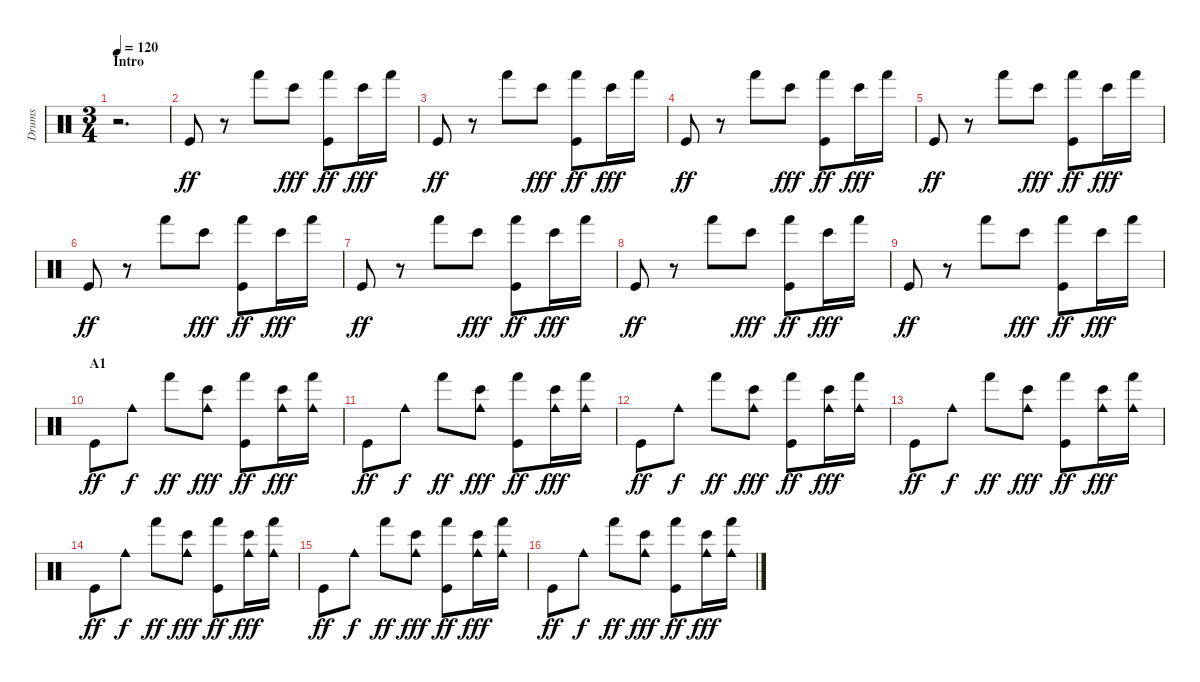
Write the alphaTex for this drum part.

\track ("Drums" "Drums") {instrument percussion}
\staff {score}
\articulation defaults
\ts (3 4)
\section ("" "Intro")
\tempo 120
\clef neutral
\ks c
r.2{d dy ff} |
"Kick (hit)".8 r.8 "Hand (hit)".8 "Bongo High (hit)".8{dy fff} ("Hand (hit)" "Kick (hit)").8{dy ff} "Bongo High (hit)".16{dy fff} "Hand (hit)".16 |
"Kick (hit)".8{dy ff} r.8 "Hand (hit)".8 "Bongo High (hit)".8{dy fff} ("Hand (hit)" "Kick (hit)").8{dy ff} "Bongo High (hit)".16{dy fff} "Hand (hit)".16 |
"Kick (hit)".8{dy ff} r.8 "Hand (hit)".8 "Bongo High (hit)".8{dy fff} ("Hand (hit)" "Kick (hit)").8{dy ff} "Bongo High (hit)".16{dy fff} "Hand (hit)".16 |
"Kick (hit)".8{dy ff} r.8 "Hand (hit)".8 "Bongo High (hit)".8{dy fff} ("Hand (hit)" "Kick (hit)").8{dy ff} "Bongo High (hit)".16{dy fff} "Hand (hit)".16 |
"Kick (hit)".8{dy ff} r.8 "Hand (hit)".8 "Bongo High (hit)".8{dy fff} ("Hand (hit)" "Kick (hit)").8{dy ff} "Bongo High (hit)".16{dy fff} "Hand (hit)".16 |
"Kick (hit)".8{dy ff} r.8 "Hand (hit)".8 "Bongo High (hit)".8{dy fff} ("Hand (hit)" "Kick (hit)").8{dy ff} "Bongo High (hit)".16{dy fff} "Hand (hit)".16 |
"Kick (hit)".8{dy ff} r.8 "Hand (hit)".8 "Bongo High (hit)".8{dy fff} ("Hand (hit)" "Kick (hit)").8{dy ff} "Bongo High (hit)".16{dy fff} "Hand (hit)".16 |
"Kick (hit)".8{dy ff} r.8 "Hand (hit)".8 "Bongo High (hit)".8{dy fff} ("Hand (hit)" "Kick (hit)").8{dy ff} "Bongo High (hit)".16{dy fff} "Hand (hit)".16 |
\section ("" "A1")
"Kick (hit)".8{dy ff} "Cowbell medium (hit)".8{dy f} "Hand (hit)".8{dy ff} ("Cowbell medium (hit)" "Bongo High (hit)").8{dy fff} ("Hand (hit)" "Kick (hit)").8{dy ff} ("Cowbell medium (hit)" "Bongo High (hit)").16{dy fff} ("Cowbell medium (hit)" "Hand (hit)").16 |
"Kick (hit)".8{dy ff} "Cowbell medium (hit)".8{dy f} "Hand (hit)".8{dy ff} ("Cowbell medium (hit)" "Bongo High (hit)").8{dy fff} ("Hand (hit)" "Kick (hit)").8{dy ff} ("Cowbell medium (hit)" "Bongo High (hit)").16{dy fff} ("Cowbell medium (hit)" "Hand (hit)").16 |
"Kick (hit)".8{dy ff} "Cowbell medium (hit)".8{dy f} "Hand (hit)".8{dy ff} ("Cowbell medium (hit)" "Bongo High (hit)").8{dy fff} ("Hand (hit)" "Kick (hit)").8{dy ff} ("Cowbell medium (hit)" "Bongo High (hit)").16{dy fff} ("Cowbell medium (hit)" "Hand (hit)").16 |
"Kick (hit)".8{dy ff} "Cowbell medium (hit)".8{dy f} "Hand (hit)".8{dy ff} ("Cowbell medium (hit)" "Bongo High (hit)").8{dy fff} ("Hand (hit)" "Kick (hit)").8{dy ff} ("Cowbell medium (hit)" "Bongo High (hit)").16{dy fff} ("Cowbell medium (hit)" "Hand (hit)").16 |
"Kick (hit)".8{dy ff} "Cowbell medium (hit)".8{dy f} "Hand (hit)".8{dy ff} ("Cowbell medium (hit)" "Bongo High (hit)").8{dy fff} ("Hand (hit)" "Kick (hit)").8{dy ff} ("Cowbell medium (hit)" "Bongo High (hit)").16{dy fff} ("Cowbell medium (hit)" "Hand (hit)").16 |
"Kick (hit)".8{dy ff} "Cowbell medium (hit)".8{dy f} "Hand (hit)".8{dy ff} ("Cowbell medium (hit)" "Bongo High (hit)").8{dy fff} ("Hand (hit)" "Kick (hit)").8{dy ff} ("Cowbell medium (hit)" "Bongo High (hit)").16{dy fff} ("Cowbell medium (hit)" "Hand (hit)").16 |
"Kick (hit)".8{dy ff} "Cowbell medium (hit)".8{dy f} "Hand (hit)".8{dy ff} ("Cowbell medium (hit)" "Bongo High (hit)").8{dy fff} ("Hand (hit)" "Kick (hit)").8{dy ff} ("Cowbell medium (hit)" "Bongo High (hit)").16{dy fff} ("Cowbell medium (hit)" "Hand (hit)").16
